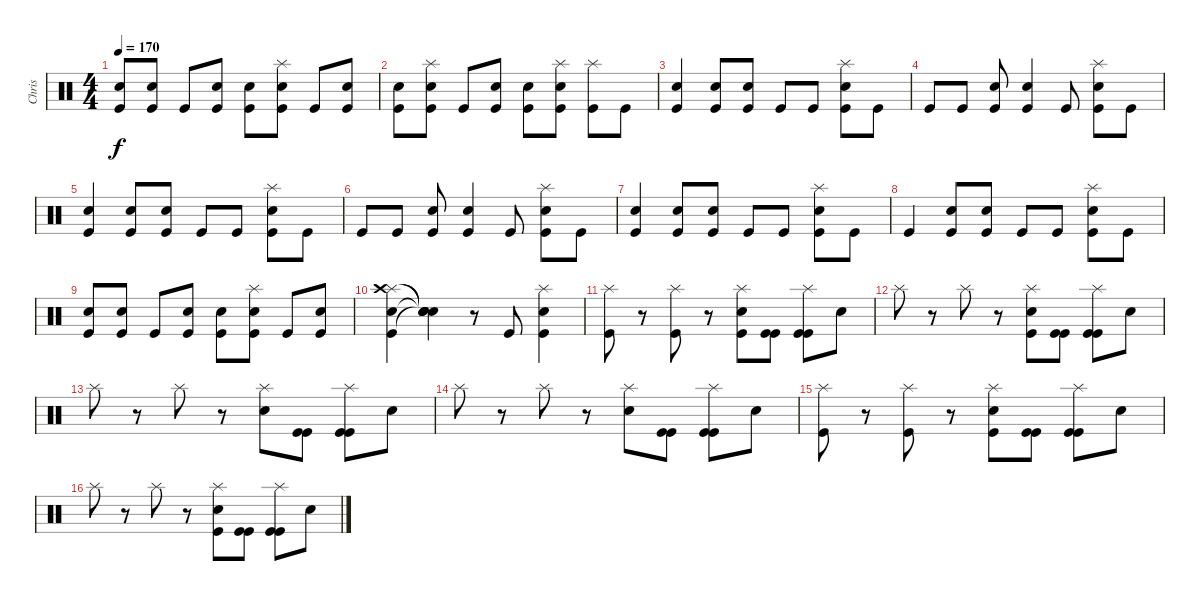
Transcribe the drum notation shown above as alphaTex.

\track ("Chris" "Chris") {instrument percussion}
\staff {score}
\articulation defaults
\ts (4 4)
\tempo 170
\clef neutral
\ks c
("Kick (hit)" "Snare (hit) 2").8{dy f} ("Kick (hit)" "Snare (hit) 2").8 "Kick (hit)".8 ("Kick (hit)" "Snare (hit) 2").8 ("Kick (hit)" "Snare (hit) 2").8 ("Kick (hit)" "Splash (hit)" "Snare (hit) 2").8 "Kick (hit)".8 ("Kick (hit)" "Snare (hit) 2").8 |
("Kick (hit)" "Snare (hit) 2").8 ("Kick (hit)" "Splash (hit)" "Snare (hit) 2").8 "Kick (hit)".8 ("Kick (hit)" "Snare (hit) 2").8 ("Kick (hit)" "Snare (hit) 2").8 ("Kick (hit)" "Splash (hit)" "Snare (hit) 2").8 ("Kick (hit)" "Splash (hit)").8 "Kick (hit)".8 |
("Kick (hit)" "Snare (hit) 2").4 ("Kick (hit)" "Snare (hit) 2").8 ("Kick (hit)" "Snare (hit) 2").8 "Kick (hit)".8 "Kick (hit)".8 ("Kick (hit)" "Splash (hit)" "Snare (hit) 2").8 "Kick (hit)".8 |
"Kick (hit)".8 "Kick (hit)".8 ("Kick (hit)" "Snare (hit) 2").8 ("Kick (hit)" "Snare (hit) 2").4 "Kick (hit)".8 ("Kick (hit)" "Splash (hit)" "Snare (hit) 2").8 "Kick (hit)".8 |
("Kick (hit)" "Snare (hit) 2").4 ("Kick (hit)" "Snare (hit) 2").8 ("Kick (hit)" "Snare (hit) 2").8 "Kick (hit)".8 "Kick (hit)".8 ("Kick (hit)" "Splash (hit)" "Snare (hit) 2").8 "Kick (hit)".8 |
"Kick (hit)".8 "Kick (hit)".8 ("Kick (hit)" "Snare (hit) 2").8 ("Kick (hit)" "Snare (hit) 2").4 "Kick (hit)".8 ("Kick (hit)" "Splash (hit)" "Snare (hit) 2").8 "Kick (hit)".8 |
("Kick (hit)" "Snare (hit) 2").4 ("Kick (hit)" "Snare (hit) 2").8 ("Kick (hit)" "Snare (hit) 2").8 "Kick (hit)".8 "Kick (hit)".8 ("Kick (hit)" "Splash (hit)" "Snare (hit) 2").8 "Kick (hit)".8 |
"Kick (hit)".4 ("Kick (hit)" "Snare (hit) 2").8 ("Kick (hit)" "Snare (hit) 2").8 "Kick (hit)".8 "Kick (hit)".8 ("Kick (hit)" "Splash (hit)" "Snare (hit) 2").8 "Kick (hit)".8 |
("Kick (hit)" "Snare (hit) 2").8 ("Kick (hit)" "Snare (hit) 2").8 "Kick (hit)".8 ("Kick (hit)" "Snare (hit) 2").8 ("Kick (hit)" "Snare (hit) 2").8 ("Kick (hit)" "Splash (hit)" "Snare (hit) 2").8 "Kick (hit)".8 ("Kick (hit)" "Snare (hit) 2").8 |
("Kick (hit)" "Splash (hit)" "Crash high (hit)" "Snare (hit) 2").4 ("Snare (hit)"{t} "Snare (hit)"{t} "Snare (hit)"{t} "Snare (hit)"{t}).4 r.8 "Kick (hit)".8 ("Kick (hit)" "Splash (hit)" "Snare (hit) 2").4 |
("Kick (hit)" "Splash (hit)").8 r.8 ("Kick (hit)" "Splash (hit)").8 r.8 ("Kick (hit)" "Splash (hit)" "Snare (hit) 2").8 ("Kick (hit)" "Kick (hit)").8 ("Kick (hit)" "Splash (hit)" "Kick (hit)").8 "Snare (hit) 2".8 |
"Splash (hit)".8 r.8 "Splash (hit)".8 r.8 ("Kick (hit)" "Splash (hit)" "Snare (hit) 2").8 ("Kick (hit)" "Kick (hit)").8 ("Kick (hit)" "Splash (hit)" "Kick (hit)").8 "Snare (hit) 2".8 |
"Splash (hit)".8 r.8 "Splash (hit)".8 r.8 ("Splash (hit)" "Snare (hit) 2").8 ("Kick (hit)" "Kick (hit)").8 ("Kick (hit)" "Splash (hit)" "Kick (hit)").8 "Snare (hit) 2".8 |
"Splash (hit)".8 r.8 "Splash (hit)".8 r.8 ("Splash (hit)" "Snare (hit) 2").8 ("Kick (hit)" "Kick (hit)").8 ("Kick (hit)" "Splash (hit)" "Kick (hit)").8 "Snare (hit) 2".8 |
("Kick (hit)" "Splash (hit)").8 r.8 ("Kick (hit)" "Splash (hit)").8 r.8 ("Kick (hit)" "Splash (hit)" "Snare (hit) 2").8 ("Kick (hit)" "Kick (hit)").8 ("Kick (hit)" "Splash (hit)" "Kick (hit)").8 "Snare (hit) 2".8 |
"Splash (hit)".8 r.8 "Splash (hit)".8 r.8 ("Kick (hit)" "Splash (hit)" "Snare (hit) 2").8 ("Kick (hit)" "Kick (hit)").8 ("Kick (hit)" "Splash (hit)" "Kick (hit)").8 "Snare (hit) 2".8
